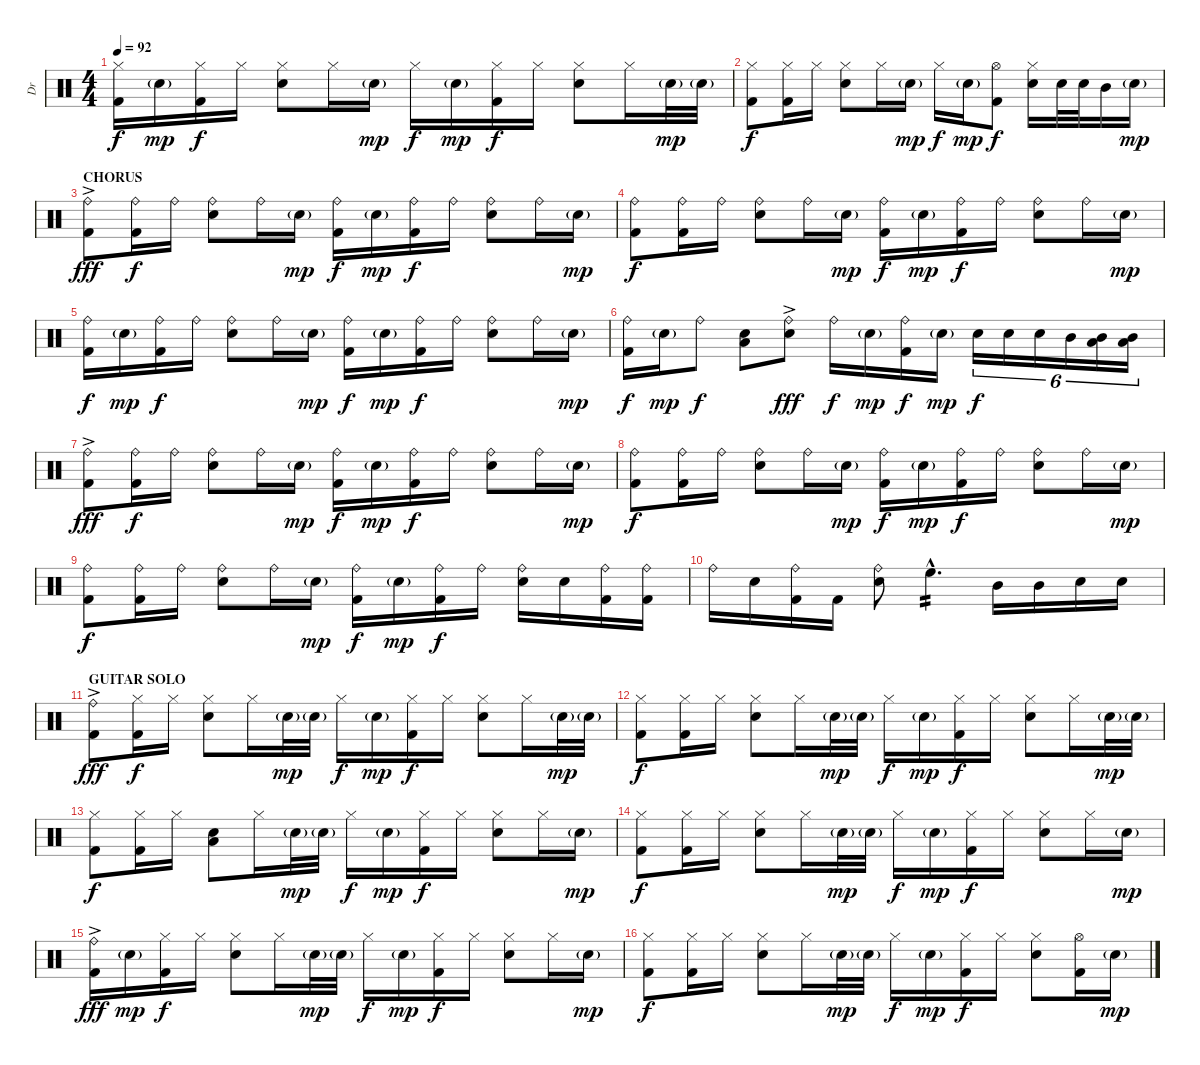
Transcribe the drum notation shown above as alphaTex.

\track ("Dr" "Dr") {instrument percussion}
\staff {score}
\articulation defaults
\ts (4 4)
\tempo 92
\clef neutral
\ks c
("Hi-Hat (closed)" "Kick (hit) 2").16{dy f} "Electric Snare (hit)"{g}.16{dy mp} ("Hi-Hat (closed)" "Kick (hit) 2").16{dy f} "Hi-Hat (closed)".16 ("Hi-Hat (closed)" "Electric Snare (hit)").8 "Hi-Hat (closed)".16 "Electric Snare (hit)"{g}.16{dy mp} "Hi-Hat (closed)".16{dy f} "Electric Snare (hit)"{g}.16{dy mp} ("Hi-Hat (closed)" "Kick (hit) 2").16{dy f} "Hi-Hat (closed)".16 ("Hi-Hat (closed)" "Electric Snare (hit)").8 "Hi-Hat (closed)".16 "Electric Snare (hit)"{g}.32{dy mp} "Electric Snare (hit)"{g}.32 |
("Hi-Hat (closed)" "Kick (hit) 2").8{dy f} ("Hi-Hat (closed)" "Kick (hit) 2").16 "Hi-Hat (closed)".16 ("Hi-Hat (closed)" "Electric Snare (hit)").8 "Hi-Hat (closed)".16 "Electric Snare (hit)"{g}.16{dy mp} "Hi-Hat (closed)".16{dy f} "Electric Snare (hit)"{g}.16{dy mp} ("Hi-Hat (open)" "Kick (hit) 2").8{dy f} ("Hi-Hat (closed)" "Electric Snare (hit)").16 "Electric Snare (hit)".32 "Electric Snare (hit)".32 "Mid Tom (hit)".16 "Electric Snare (hit)"{g}.16{dy mp} |
\section ("" "CHORUS")
("Ride (bell)"{ac} "Kick (hit) 2"{ac}).8{dy fff} ("Ride (bell)" "Kick (hit) 2").16{dy f} "Ride (bell)".16 ("Ride (bell)" "Electric Snare (hit)").8 "Ride (bell)".16 "Electric Snare (hit)"{g}.16{dy mp} ("Ride (bell)" "Kick (hit) 2").16{dy f} "Electric Snare (hit)"{g}.16{dy mp} ("Ride (bell)" "Kick (hit) 2").16{dy f} "Ride (bell)".16 ("Ride (bell)" "Electric Snare (hit)").8 "Ride (bell)".16 "Electric Snare (hit)"{g}.16{dy mp} |
("Ride (bell)" "Kick (hit) 2").8{dy f} ("Ride (bell)" "Kick (hit) 2").16 "Ride (bell)".16 ("Ride (bell)" "Electric Snare (hit)").8 "Ride (bell)".16 "Electric Snare (hit)"{g}.16{dy mp} ("Ride (bell)" "Kick (hit) 2").16{dy f} "Electric Snare (hit)"{g}.16{dy mp} ("Ride (bell)" "Kick (hit) 2").16{dy f} "Ride (bell)".16 ("Ride (bell)" "Electric Snare (hit)").8 "Ride (bell)".16 "Electric Snare (hit)"{g}.16{dy mp} |
("Ride (bell)" "Kick (hit) 2").16{dy f} "Electric Snare (hit)"{g}.16{dy mp} ("Ride (bell)" "Kick (hit) 2").16{dy f} "Ride (bell)".16 ("Ride (bell)" "Electric Snare (hit)").8 "Ride (bell)".16 "Electric Snare (hit)"{g}.16{dy mp} ("Ride (bell)" "Kick (hit) 2").16{dy f} "Electric Snare (hit)"{g}.16{dy mp} ("Ride (bell)" "Kick (hit) 2").16{dy f} "Ride (bell)".16 ("Ride (bell)" "Electric Snare (hit)").8 "Ride (bell)".16 "Electric Snare (hit)"{g}.16{dy mp} |
("Ride (bell)" "Kick (hit) 2").16{dy f} "Electric Snare (hit)"{g}.16{dy mp} "Ride (bell)".8{dy f} ("Electric Snare (hit)" "Low Tom (hit)").8 ("Ride (bell)"{ac} "Electric Snare (hit)"{ac}).8{dy fff} "Ride (bell)".16{dy f} "Electric Snare (hit)"{g}.16{dy mp} ("Ride (bell)" "Kick (hit) 2").16{dy f} "Electric Snare (hit)"{g}.16{dy mp} "Electric Snare (hit)".16{tu (6 4) dy f} "Electric Snare (hit)".16{tu (6 4)} "Electric Snare (hit)".16{tu (6 4)} "Mid Tom (hit)".16{tu (6 4)} ("Mid Tom (hit)" "Low Tom (hit)").16{tu (6 4)} ("Mid Tom (hit)" "Low Tom (hit)").16{tu (6 4)} |
("Ride (bell)"{ac} "Kick (hit) 2"{ac}).8{dy fff} ("Ride (bell)" "Kick (hit) 2").16{dy f} "Ride (bell)".16 ("Ride (bell)" "Electric Snare (hit)").8 "Ride (bell)".16 "Electric Snare (hit)"{g}.16{dy mp} ("Ride (bell)" "Kick (hit) 2").16{dy f} "Electric Snare (hit)"{g}.16{dy mp} ("Ride (bell)" "Kick (hit) 2").16{dy f} "Ride (bell)".16 ("Ride (bell)" "Electric Snare (hit)").8 "Ride (bell)".16 "Electric Snare (hit)"{g}.16{dy mp} |
("Ride (bell)" "Kick (hit) 2").8{dy f} ("Ride (bell)" "Kick (hit) 2").16 "Ride (bell)".16 ("Ride (bell)" "Electric Snare (hit)").8 "Ride (bell)".16 "Electric Snare (hit)"{g}.16{dy mp} ("Ride (bell)" "Kick (hit) 2").16{dy f} "Electric Snare (hit)"{g}.16{dy mp} ("Ride (bell)" "Kick (hit) 2").16{dy f} "Ride (bell)".16 ("Ride (bell)" "Electric Snare (hit)").8 "Ride (bell)".16 "Electric Snare (hit)"{g}.16{dy mp} |
("Ride (bell)" "Kick (hit) 2").8{dy f} ("Ride (bell)" "Kick (hit) 2").16 "Ride (bell)".16 ("Ride (bell)" "Electric Snare (hit)").8 "Ride (bell)".16 "Electric Snare (hit)"{g}.16{dy mp} ("Ride (bell)" "Kick (hit) 2").16{dy f} "Electric Snare (hit)"{g}.16{dy mp} ("Ride (bell)" "Kick (hit) 2").16{dy f} "Ride (bell)".16 ("Ride (bell)" "Electric Snare (hit)").16 "Electric Snare (hit)".16 ("Ride (bell)" "Kick (hit) 2").16 ("Ride (bell)" "Kick (hit) 2").16 |
"Ride (bell)".16 "Electric Snare (hit)".16 ("Ride (bell)" "Kick (hit) 2").16 "Kick (hit) 2".16 ("Ride (bell)" "Electric Snare (hit)").8 "High Floor Tom (hit)"{hac}.4{d tp 2} "Mid Tom (hit)".16 "Mid Tom (hit)".16 "Electric Snare (hit)".16 "Electric Snare (hit)".16 |
\section ("" "GUITAR SOLO")
("Ride (bell)"{ac} "Kick (hit) 2"{ac}).8{dy fff} ("Hi-Hat (closed)" "Kick (hit) 2").16{dy f} "Hi-Hat (closed)".16 ("Hi-Hat (closed)" "Electric Snare (hit)").8 "Hi-Hat (closed)".16 "Electric Snare (hit)"{g}.32{dy mp} "Electric Snare (hit)"{g}.32 "Hi-Hat (closed)".16{dy f} "Electric Snare (hit)"{g}.16{dy mp} ("Hi-Hat (closed)" "Kick (hit) 2").16{dy f} "Hi-Hat (closed)".16 ("Hi-Hat (closed)" "Electric Snare (hit)").8 "Hi-Hat (closed)".16 "Electric Snare (hit)"{g}.32{dy mp} "Electric Snare (hit)"{g}.32 |
("Hi-Hat (closed)" "Kick (hit) 2").8{dy f} ("Hi-Hat (closed)" "Kick (hit) 2").16 "Hi-Hat (closed)".16 ("Hi-Hat (closed)" "Electric Snare (hit)").8 "Hi-Hat (closed)".16 "Electric Snare (hit)"{g}.32{dy mp} "Electric Snare (hit)"{g}.32 "Hi-Hat (closed)".16{dy f} "Electric Snare (hit)"{g}.16{dy mp} ("Hi-Hat (closed)" "Kick (hit) 2").16{dy f} "Hi-Hat (closed)".16 ("Hi-Hat (closed)" "Electric Snare (hit)").8 "Hi-Hat (closed)".16 "Electric Snare (hit)"{g}.32{dy mp} "Electric Snare (hit)"{g}.32 |
("Hi-Hat (closed)" "Kick (hit) 2").8{dy f} ("Hi-Hat (closed)" "Kick (hit) 2").16 "Hi-Hat (closed)".16 ("Electric Snare (hit)" "Low Tom (hit)").8 "Hi-Hat (closed)".16 "Electric Snare (hit)"{g}.32{dy mp} "Electric Snare (hit)"{g}.32 "Hi-Hat (closed)".16{dy f} "Electric Snare (hit)"{g}.16{dy mp} ("Hi-Hat (closed)" "Kick (hit) 2").16{dy f} "Hi-Hat (closed)".16 ("Hi-Hat (closed)" "Electric Snare (hit)").8 "Hi-Hat (closed)".16 "Electric Snare (hit)"{g}.16{dy mp} |
("Hi-Hat (closed)" "Kick (hit) 2").8{dy f} ("Hi-Hat (closed)" "Kick (hit) 2").16 "Hi-Hat (closed)".16 ("Hi-Hat (closed)" "Electric Snare (hit)").8 "Hi-Hat (closed)".16 "Electric Snare (hit)"{g}.32{dy mp} "Electric Snare (hit)"{g}.32 "Hi-Hat (closed)".16{dy f} "Electric Snare (hit)"{g}.16{dy mp} ("Hi-Hat (closed)" "Kick (hit) 2").16{dy f} "Hi-Hat (closed)".16 ("Hi-Hat (closed)" "Electric Snare (hit)").8 "Hi-Hat (closed)".16 "Electric Snare (hit)"{g}.16{dy mp} |
("Ride (bell)"{ac} "Kick (hit) 2"{ac}).16{dy fff} "Electric Snare (hit)"{g}.16{dy mp} ("Hi-Hat (closed)" "Kick (hit) 2").16{dy f} "Hi-Hat (closed)".16 ("Hi-Hat (closed)" "Electric Snare (hit)").8 "Hi-Hat (closed)".16 "Electric Snare (hit)"{g}.32{dy mp} "Electric Snare (hit)"{g}.32 "Hi-Hat (closed)".16{dy f} "Electric Snare (hit)"{g}.16{dy mp} ("Hi-Hat (closed)" "Kick (hit) 2").16{dy f} "Hi-Hat (closed)".16 ("Hi-Hat (closed)" "Electric Snare (hit)").8 "Hi-Hat (closed)".16 "Electric Snare (hit)"{g}.16{dy mp} |
("Hi-Hat (closed)" "Kick (hit) 2").8{dy f} ("Hi-Hat (closed)" "Kick (hit) 2").16 "Hi-Hat (closed)".16 ("Hi-Hat (closed)" "Electric Snare (hit)").8 "Hi-Hat (closed)".16 "Electric Snare (hit)"{g}.32{dy mp} "Electric Snare (hit)"{g}.32 "Hi-Hat (closed)".16{dy f} "Electric Snare (hit)"{g}.16{dy mp} ("Hi-Hat (closed)" "Kick (hit) 2").16{dy f} "Hi-Hat (closed)".16 ("Hi-Hat (closed)" "Electric Snare (hit)").8 ("Hi-Hat (open)" "Kick (hit) 2").16 "Electric Snare (hit)"{g}.16{dy mp}
